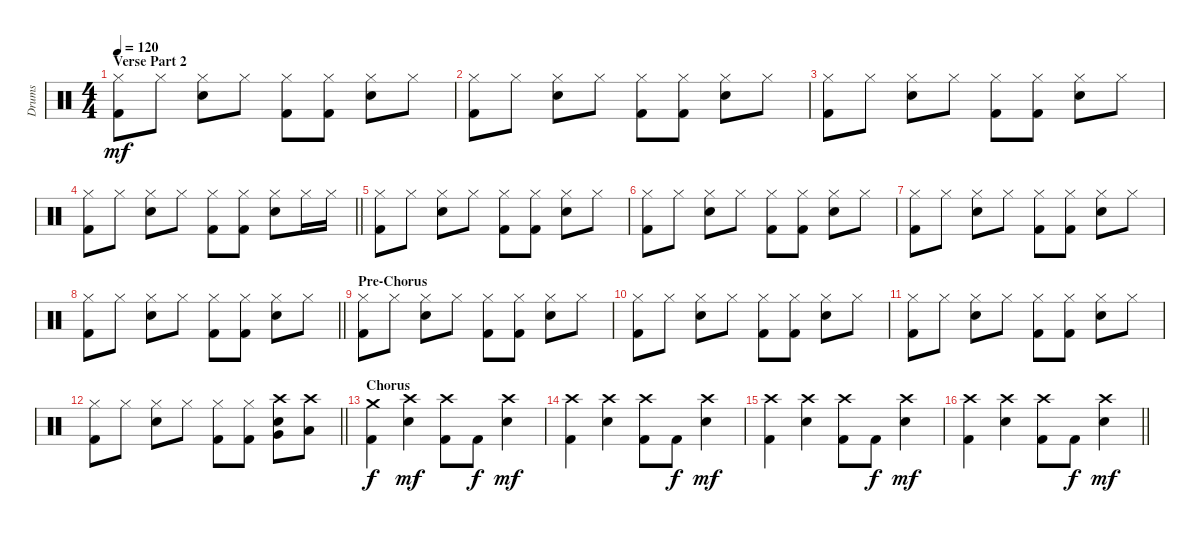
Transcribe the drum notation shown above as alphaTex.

\track ("Drums" "Drums") {instrument percussion}
\staff {score}
\articulation defaults
\ts (4 4)
\section ("" "Verse Part 2")
\tempo 120
\clef neutral
\ks c
("Hi-Hat (closed)" "Kick (hit) 2").8{dy mf} "Hi-Hat (closed)".8 ("Hi-Hat (closed)" "Snare (hit) 2").8 "Hi-Hat (closed)".8 ("Hi-Hat (closed)" "Kick (hit) 2").8 ("Hi-Hat (closed)" "Kick (hit) 2").8 ("Hi-Hat (closed)" "Snare (hit) 2").8 "Hi-Hat (closed)".8 |
("Hi-Hat (closed)" "Kick (hit) 2").8 "Hi-Hat (closed)".8 ("Hi-Hat (closed)" "Snare (hit) 2").8 "Hi-Hat (closed)".8 ("Hi-Hat (closed)" "Kick (hit) 2").8 ("Hi-Hat (closed)" "Kick (hit) 2").8 ("Hi-Hat (closed)" "Snare (hit) 2").8 "Hi-Hat (closed)".8 |
("Hi-Hat (closed)" "Kick (hit) 2").8 "Hi-Hat (closed)".8 ("Hi-Hat (closed)" "Snare (hit) 2").8 "Hi-Hat (closed)".8 ("Hi-Hat (closed)" "Kick (hit) 2").8 ("Hi-Hat (closed)" "Kick (hit) 2").8 ("Hi-Hat (closed)" "Snare (hit) 2").8 "Hi-Hat (closed)".8 |
\barLineRight lightlight
("Hi-Hat (closed)" "Kick (hit) 2").8 "Hi-Hat (closed)".8 ("Hi-Hat (closed)" "Snare (hit) 2").8 "Hi-Hat (closed)".8 ("Hi-Hat (closed)" "Kick (hit) 2").8 ("Hi-Hat (closed)" "Kick (hit) 2").8 ("Hi-Hat (closed)" "Snare (hit) 2").8 "Hi-Hat (closed)".16 "Hi-Hat (closed)".16 |
("Hi-Hat (closed)" "Kick (hit) 2").8 "Hi-Hat (closed)".8 ("Hi-Hat (closed)" "Snare (hit) 2").8 "Hi-Hat (closed)".8 ("Hi-Hat (closed)" "Kick (hit) 2").8 ("Hi-Hat (closed)" "Kick (hit) 2").8 ("Hi-Hat (closed)" "Snare (hit) 2").8 "Hi-Hat (closed)".8 |
("Hi-Hat (closed)" "Kick (hit) 2").8 "Hi-Hat (closed)".8 ("Hi-Hat (closed)" "Snare (hit) 2").8 "Hi-Hat (closed)".8 ("Hi-Hat (closed)" "Kick (hit) 2").8 ("Hi-Hat (closed)" "Kick (hit) 2").8 ("Hi-Hat (closed)" "Snare (hit) 2").8 "Hi-Hat (closed)".8 |
("Hi-Hat (closed)" "Kick (hit) 2").8 "Hi-Hat (closed)".8 ("Hi-Hat (closed)" "Snare (hit) 2").8 "Hi-Hat (closed)".8 ("Hi-Hat (closed)" "Kick (hit) 2").8 ("Hi-Hat (closed)" "Kick (hit) 2").8 ("Hi-Hat (closed)" "Snare (hit) 2").8 "Hi-Hat (closed)".8 |
\barLineRight lightlight
("Hi-Hat (closed)" "Kick (hit) 2").8 "Hi-Hat (closed)".8 ("Hi-Hat (closed)" "Snare (hit) 2").8 "Hi-Hat (closed)".8 ("Hi-Hat (closed)" "Kick (hit) 2").8 ("Hi-Hat (closed)" "Kick (hit) 2").8 ("Hi-Hat (closed)" "Snare (hit) 2").8 "Hi-Hat (closed)".8 |
\section ("" "Pre-Chorus")
("Hi-Hat (closed)" "Kick (hit) 2").8 "Hi-Hat (closed)".8 ("Hi-Hat (closed)" "Snare (hit) 2").8 "Hi-Hat (closed)".8 ("Hi-Hat (closed)" "Kick (hit) 2").8 ("Hi-Hat (closed)" "Kick (hit) 2").8 ("Hi-Hat (closed)" "Snare (hit) 2").8 "Hi-Hat (closed)".8 |
("Hi-Hat (closed)" "Kick (hit) 2").8 "Hi-Hat (closed)".8 ("Hi-Hat (closed)" "Snare (hit) 2").8 "Hi-Hat (closed)".8 ("Hi-Hat (closed)" "Kick (hit) 2").8 ("Hi-Hat (closed)" "Kick (hit) 2").8 ("Hi-Hat (closed)" "Snare (hit) 2").8 "Hi-Hat (closed)".8 |
("Hi-Hat (closed)" "Kick (hit) 2").8 "Hi-Hat (closed)".8 ("Hi-Hat (closed)" "Snare (hit) 2").8 "Hi-Hat (closed)".8 ("Hi-Hat (closed)" "Kick (hit) 2").8 ("Hi-Hat (closed)" "Kick (hit) 2").8 ("Hi-Hat (closed)" "Snare (hit) 2").8 "Hi-Hat (closed)".8 |
\barLineRight lightlight
("Hi-Hat (closed)" "Kick (hit) 2").8 "Hi-Hat (closed)".8 ("Hi-Hat (closed)" "Snare (hit) 2").8 "Hi-Hat (closed)".8 ("Hi-Hat (closed)" "Kick (hit) 2").8 ("Hi-Hat (closed)" "Kick (hit) 2").8 ("Crash high (hit)" "Very Low Tom (hit)" "Snare (hit) 2").8 ("Crash high (hit)" "Low Floor Tom (hit)").8 |
\section ("" "Chorus")
("Crash medium (hit)" "Kick (hit) 2").4{dy f} ("Crash high (hit)" "Electric Snare (hit)").4{dy mf} ("Crash high (hit)" "Kick (hit) 2").8 "Kick (hit) 2".8{dy f} ("Crash high (hit)" "Electric Snare (hit)").4{dy mf} |
("Crash high (hit)" "Kick (hit) 2").4 ("Crash high (hit)" "Electric Snare (hit)").4 ("Crash high (hit)" "Kick (hit) 2").8 "Kick (hit) 2".8{dy f} ("Crash high (hit)" "Electric Snare (hit)").4{dy mf} |
("Crash high (hit)" "Kick (hit) 2").4 ("Crash high (hit)" "Electric Snare (hit)").4 ("Crash high (hit)" "Kick (hit) 2").8 "Kick (hit) 2".8{dy f} ("Crash high (hit)" "Electric Snare (hit)").4{dy mf} |
\barLineRight lightlight
("Crash high (hit)" "Kick (hit) 2").4 ("Crash high (hit)" "Electric Snare (hit)").4 ("Crash high (hit)" "Kick (hit) 2").8 "Kick (hit) 2".8{dy f} ("Crash high (hit)" "Electric Snare (hit)").4{dy mf}
